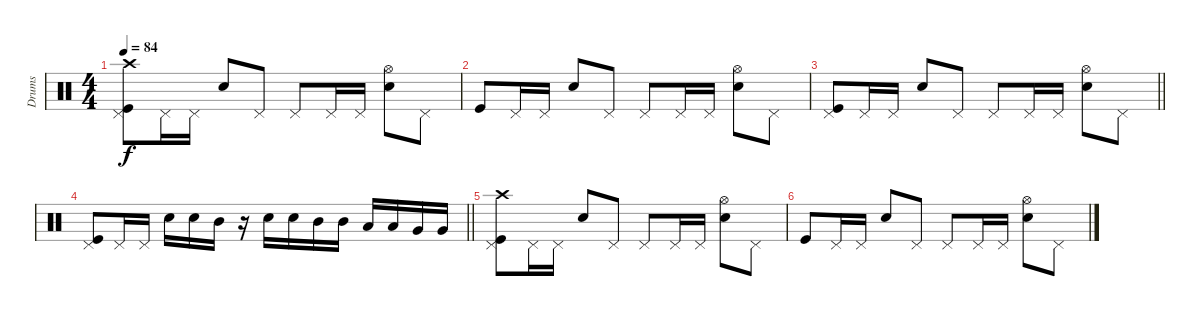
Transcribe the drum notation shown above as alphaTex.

\track ("Drums" "Drums") {instrument percussion}
\staff {score}
\articulation defaults
\ts (4 4)
\tempo 84
\clef neutral
\ks c
("Pedal Hi-Hat (hit)" "Kick (hit)" "Crash high (hit)").8{dy f} "Pedal Hi-Hat (hit)".16 "Pedal Hi-Hat (hit)".16 "Snare (hit) 2".8 "Pedal Hi-Hat (hit)".8 "Pedal Hi-Hat (hit)".8 "Pedal Hi-Hat (hit)".16 "Pedal Hi-Hat (hit)".16 ("Hi-Hat (open)" "Snare (hit) 2").8 "Pedal Hi-Hat (hit)".8 |
"Kick (hit)".8 "Pedal Hi-Hat (hit)".16 "Pedal Hi-Hat (hit)".16 "Snare (hit) 2".8 "Pedal Hi-Hat (hit)".8 "Pedal Hi-Hat (hit)".8 "Pedal Hi-Hat (hit)".16 "Pedal Hi-Hat (hit)".16 ("Hi-Hat (open)" "Snare (hit) 2").8 "Pedal Hi-Hat (hit)".8 |
\barLineRight lightlight
("Pedal Hi-Hat (hit)" "Kick (hit)").8 "Pedal Hi-Hat (hit)".16 "Pedal Hi-Hat (hit)".16 "Snare (hit) 2".8 "Pedal Hi-Hat (hit)".8 "Pedal Hi-Hat (hit)".8 "Pedal Hi-Hat (hit)".16 "Pedal Hi-Hat (hit)".16 ("Hi-Hat (open)" "Snare (hit) 2").8 "Pedal Hi-Hat (hit)".8 |
\barLineRight lightlight
("Pedal Hi-Hat (hit)" "Kick (hit)").8 "Pedal Hi-Hat (hit)".16 "Pedal Hi-Hat (hit)".16 "Snare (hit) 2".16 "Snare (hit) 2".16 "Mid Tom (hit)".16 r.16 "Snare (hit) 2".16 "Snare (hit) 2".16 "Mid Tom (hit)".16 "Mid Tom (hit)".16 "Low Tom (hit)".16 "Low Tom (hit)".16 "Very Low Tom (hit)".16 "Very Low Tom (hit)".16 |
("Pedal Hi-Hat (hit)" "Kick (hit)" "Crash high (hit)").8 "Pedal Hi-Hat (hit)".16 "Pedal Hi-Hat (hit)".16 "Snare (hit) 2".8 "Pedal Hi-Hat (hit)".8 "Pedal Hi-Hat (hit)".8 "Pedal Hi-Hat (hit)".16 "Pedal Hi-Hat (hit)".16 ("Hi-Hat (open)" "Snare (hit) 2").8 "Pedal Hi-Hat (hit)".8 |
"Kick (hit)".8 "Pedal Hi-Hat (hit)".16 "Pedal Hi-Hat (hit)".16 "Snare (hit) 2".8 "Pedal Hi-Hat (hit)".8 "Pedal Hi-Hat (hit)".8 "Pedal Hi-Hat (hit)".16 "Pedal Hi-Hat (hit)".16 ("Hi-Hat (open)" "Snare (hit) 2").8 "Pedal Hi-Hat (hit)".8
